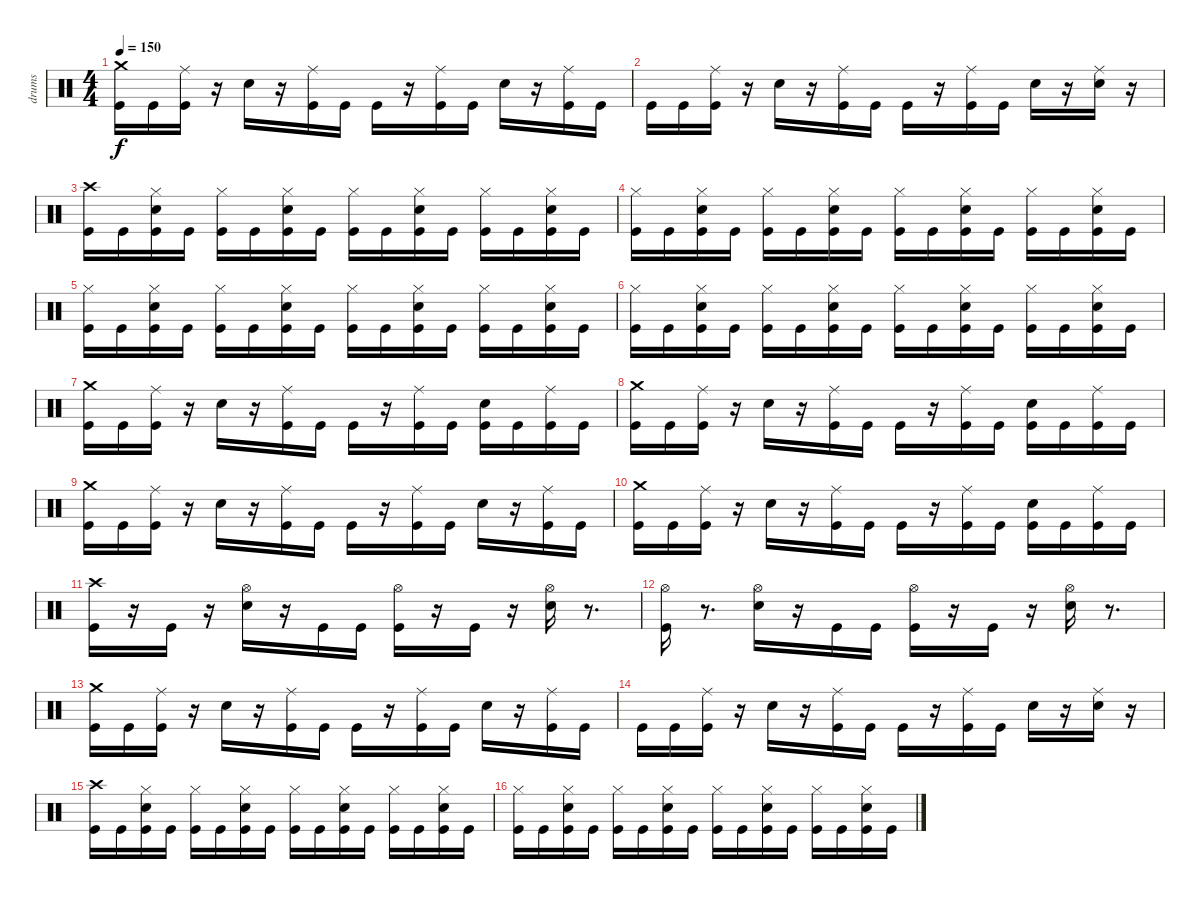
\track ("drums" "drums") {instrument percussion}
\staff {score}
\articulation defaults
\ts (4 4)
\tempo 150
\clef neutral
\ks c
("Crash medium (hit)" "Kick (hit)").16{dy f} "Kick (hit)".16 ("Ride (middle)" "Kick (hit)").16 r.16 "Electric Snare (hit)".16 r.16 ("Ride (middle)" "Kick (hit)").16 "Kick (hit)".16 "Kick (hit)".16 r.16 ("Ride (middle)" "Kick (hit)").16 "Kick (hit)".16 "Electric Snare (hit)".16 r.16 ("Ride (middle)" "Kick (hit)").16 "Kick (hit)".16 |
"Kick (hit)".16 "Kick (hit)".16 ("Ride (middle)" "Kick (hit)").16 r.16 "Electric Snare (hit)".16 r.16 ("Ride (middle)" "Kick (hit)").16 "Kick (hit)".16 "Kick (hit)".16 r.16 ("Ride (middle)" "Kick (hit)").16 "Kick (hit)".16 "Electric Snare (hit)".16 r.16 ("Ride (middle)" "Electric Snare (hit)").16 r.16 |
("Crash high (hit)" "Kick (hit)").16 "Kick (hit)".16 ("Hi-Hat (closed)" "Kick (hit)" "Electric Snare (hit)").16 "Kick (hit)".16 ("Hi-Hat (closed)" "Kick (hit)").16 "Kick (hit)".16 ("Hi-Hat (closed)" "Electric Snare (hit)" "Kick (hit)").16 "Kick (hit)".16 ("Hi-Hat (closed)" "Kick (hit)").16 "Kick (hit)".16 ("Hi-Hat (closed)" "Electric Snare (hit)" "Kick (hit)").16 "Kick (hit)".16 ("Hi-Hat (closed)" "Kick (hit)").16 "Kick (hit)".16 ("Hi-Hat (closed)" "Electric Snare (hit)" "Kick (hit)").16 "Kick (hit)".16 |
("Hi-Hat (closed)" "Kick (hit)").16 "Kick (hit)".16 ("Hi-Hat (closed)" "Kick (hit)" "Electric Snare (hit)").16 "Kick (hit)".16 ("Hi-Hat (closed)" "Kick (hit)").16 "Kick (hit)".16 ("Hi-Hat (closed)" "Electric Snare (hit)" "Kick (hit)").16 "Kick (hit)".16 ("Hi-Hat (closed)" "Kick (hit)").16 "Kick (hit)".16 ("Hi-Hat (closed)" "Electric Snare (hit)" "Kick (hit)").16 "Kick (hit)".16 ("Hi-Hat (closed)" "Kick (hit)").16 "Kick (hit)".16 ("Hi-Hat (closed)" "Electric Snare (hit)" "Kick (hit)").16 "Kick (hit)".16 |
("Hi-Hat (closed)" "Kick (hit)").16 "Kick (hit)".16 ("Hi-Hat (closed)" "Kick (hit)" "Electric Snare (hit)").16 "Kick (hit)".16 ("Hi-Hat (closed)" "Kick (hit)").16 "Kick (hit)".16 ("Hi-Hat (closed)" "Electric Snare (hit)" "Kick (hit)").16 "Kick (hit)".16 ("Hi-Hat (closed)" "Kick (hit)").16 "Kick (hit)".16 ("Hi-Hat (closed)" "Electric Snare (hit)" "Kick (hit)").16 "Kick (hit)".16 ("Hi-Hat (closed)" "Kick (hit)").16 "Kick (hit)".16 ("Hi-Hat (closed)" "Electric Snare (hit)" "Kick (hit)").16 "Kick (hit)".16 |
("Hi-Hat (closed)" "Kick (hit)").16 "Kick (hit)".16 ("Hi-Hat (closed)" "Kick (hit)" "Electric Snare (hit)").16 "Kick (hit)".16 ("Hi-Hat (closed)" "Kick (hit)").16 "Kick (hit)".16 ("Hi-Hat (closed)" "Electric Snare (hit)" "Kick (hit)").16 "Kick (hit)".16 ("Hi-Hat (closed)" "Kick (hit)").16 "Kick (hit)".16 ("Hi-Hat (closed)" "Electric Snare (hit)" "Kick (hit)").16 "Kick (hit)".16 ("Hi-Hat (closed)" "Kick (hit)").16 "Kick (hit)".16 ("Hi-Hat (closed)" "Electric Snare (hit)" "Kick (hit)").16 "Kick (hit)".16 |
("Crash medium (hit)" "Kick (hit)").16 "Kick (hit)".16 ("Ride (middle)" "Kick (hit)").16 r.16 "Electric Snare (hit)".16 r.16 ("Ride (middle)" "Kick (hit)").16 "Kick (hit)".16 "Kick (hit)".16 r.16 ("Ride (middle)" "Kick (hit)").16 "Kick (hit)".16 ("Kick (hit)" "Electric Snare (hit)").16 "Kick (hit)".16 ("Ride (middle)" "Kick (hit)").16 "Kick (hit)".16 |
("Crash medium (hit)" "Kick (hit)").16 "Kick (hit)".16 ("Ride (middle)" "Kick (hit)").16 r.16 "Electric Snare (hit)".16 r.16 ("Ride (middle)" "Kick (hit)").16 "Kick (hit)".16 "Kick (hit)".16 r.16 ("Ride (middle)" "Kick (hit)").16 "Kick (hit)".16 ("Kick (hit)" "Electric Snare (hit)").16 "Kick (hit)".16 ("Ride (middle)" "Kick (hit)").16 "Kick (hit)".16 |
("Crash medium (hit)" "Kick (hit)").16 "Kick (hit)".16 ("Ride (middle)" "Kick (hit)").16 r.16 "Electric Snare (hit)".16 r.16 ("Ride (middle)" "Kick (hit)").16 "Kick (hit)".16 "Kick (hit)".16 r.16 ("Ride (middle)" "Kick (hit)").16 "Kick (hit)".16 "Electric Snare (hit)".16 r.16 ("Ride (middle)" "Kick (hit)").16 "Kick (hit)".16 |
("Crash medium (hit)" "Kick (hit)").16 "Kick (hit)".16 ("Ride (middle)" "Kick (hit)").16 r.16 "Electric Snare (hit)".16 r.16 ("Ride (middle)" "Kick (hit)").16 "Kick (hit)".16 "Kick (hit)".16 r.16 ("Ride (middle)" "Kick (hit)").16 "Kick (hit)".16 ("Kick (hit)" "Electric Snare (hit)").16 "Kick (hit)".16 ("Ride (middle)" "Kick (hit)").16 "Kick (hit)".16 |
("Crash high (hit)" "Kick (hit)").16 r.16 "Kick (hit)".16 r.16 ("Hi-Hat (open)" "Electric Snare (hit)").16 r.16 "Kick (hit)".16 "Kick (hit)".16 ("Hi-Hat (open)" "Kick (hit)").16 r.16 "Kick (hit)".16 r.16 ("Hi-Hat (open)" "Electric Snare (hit)").16 r.8{d} |
("Hi-Hat (open)" "Kick (hit)").16 r.8{d} ("Hi-Hat (open)" "Electric Snare (hit)").16 r.16 "Kick (hit)".16 "Kick (hit)".16 ("Hi-Hat (open)" "Kick (hit)").16 r.16 "Kick (hit)".16 r.16 ("Hi-Hat (open)" "Electric Snare (hit)").16 r.8{d} |
("Crash medium (hit)" "Kick (hit)").16 "Kick (hit)".16 ("Ride (middle)" "Kick (hit)").16 r.16 "Electric Snare (hit)".16 r.16 ("Ride (middle)" "Kick (hit)").16 "Kick (hit)".16 "Kick (hit)".16 r.16 ("Ride (middle)" "Kick (hit)").16 "Kick (hit)".16 "Electric Snare (hit)".16 r.16 ("Ride (middle)" "Kick (hit)").16 "Kick (hit)".16 |
"Kick (hit)".16 "Kick (hit)".16 ("Ride (middle)" "Kick (hit)").16 r.16 "Electric Snare (hit)".16 r.16 ("Ride (middle)" "Kick (hit)").16 "Kick (hit)".16 "Kick (hit)".16 r.16 ("Ride (middle)" "Kick (hit)").16 "Kick (hit)".16 "Electric Snare (hit)".16 r.16 ("Electric Snare (hit)" "Ride (middle)").16 r.16 |
("Crash high (hit)" "Kick (hit)").16 "Kick (hit)".16 ("Hi-Hat (closed)" "Kick (hit)" "Electric Snare (hit)").16 "Kick (hit)".16 ("Hi-Hat (closed)" "Kick (hit)").16 "Kick (hit)".16 ("Hi-Hat (closed)" "Electric Snare (hit)" "Kick (hit)").16 "Kick (hit)".16 ("Hi-Hat (closed)" "Kick (hit)").16 "Kick (hit)".16 ("Hi-Hat (closed)" "Electric Snare (hit)" "Kick (hit)").16 "Kick (hit)".16 ("Hi-Hat (closed)" "Kick (hit)").16 "Kick (hit)".16 ("Hi-Hat (closed)" "Electric Snare (hit)" "Kick (hit)").16 "Kick (hit)".16 |
("Hi-Hat (closed)" "Kick (hit)").16 "Kick (hit)".16 ("Hi-Hat (closed)" "Kick (hit)" "Electric Snare (hit)").16 "Kick (hit)".16 ("Hi-Hat (closed)" "Kick (hit)").16 "Kick (hit)".16 ("Hi-Hat (closed)" "Electric Snare (hit)" "Kick (hit)").16 "Kick (hit)".16 ("Hi-Hat (closed)" "Kick (hit)").16 "Kick (hit)".16 ("Hi-Hat (closed)" "Electric Snare (hit)" "Kick (hit)").16 "Kick (hit)".16 ("Hi-Hat (closed)" "Kick (hit)").16 "Kick (hit)".16 ("Hi-Hat (closed)" "Electric Snare (hit)" "Kick (hit)").16 "Kick (hit)".16
